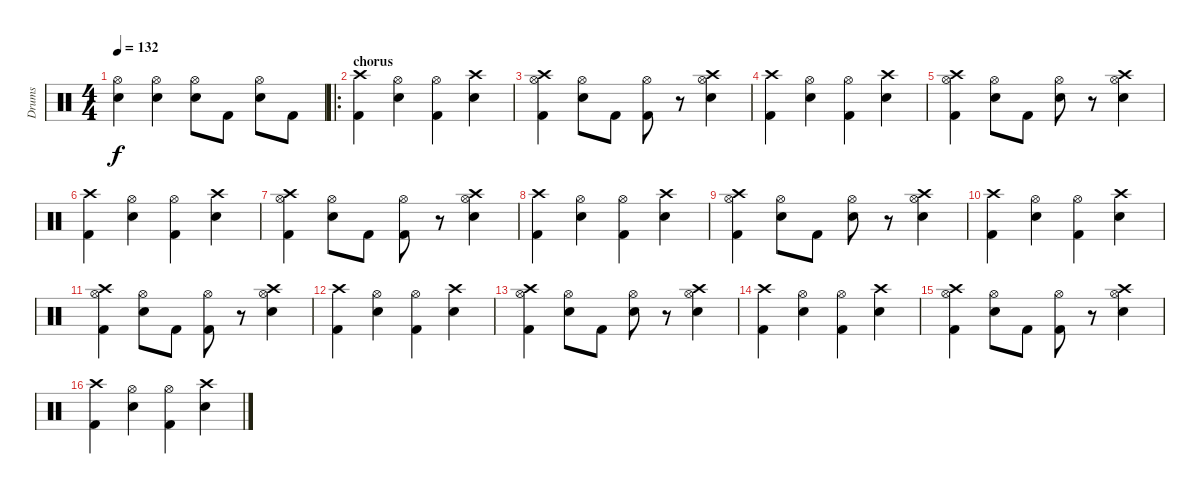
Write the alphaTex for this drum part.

\track ("Drums" "Drums") {instrument percussion}
\staff {score}
\articulation defaults
\ts (4 4)
\tempo 132
\clef neutral
\ks c
("Hi-Hat (open)" "Snare (hit) 2").4{dy f} ("Hi-Hat (open)" "Snare (hit) 2").4 ("Hi-Hat (open)" "Snare (hit) 2").8 "Kick (hit) 2".8 ("Hi-Hat (open)" "Snare (hit) 2").8 "Kick (hit) 2".8 |
\ro
\section ("" "chorus")
("Crash high (hit)" "Kick (hit) 2").4 ("Hi-Hat (open)" "Snare (hit) 2").4 ("Hi-Hat (open)" "Kick (hit) 2").4 ("Crash high (hit)" "Snare (hit) 2").4 |
("Hi-Hat (open)" "Crash high (hit)" "Kick (hit) 2").4 ("Hi-Hat (open)" "Snare (hit) 2").8 "Kick (hit) 2".8 ("Hi-Hat (open)" "Kick (hit) 2").8 r.8 ("Crash high (hit)" "Hi-Hat (open)" "Snare (hit) 2").4 |
("Crash high (hit)" "Kick (hit) 2").4 ("Hi-Hat (open)" "Snare (hit) 2").4 ("Hi-Hat (open)" "Kick (hit) 2").4 ("Crash high (hit)" "Snare (hit) 2").4 |
("Hi-Hat (open)" "Crash high (hit)" "Kick (hit) 2").4 ("Hi-Hat (open)" "Snare (hit) 2").8 "Kick (hit) 2".8 ("Hi-Hat (open)" "Snare (hit) 2").8 r.8 ("Crash high (hit)" "Hi-Hat (open)" "Snare (hit) 2").4 |
("Crash high (hit)" "Kick (hit) 2").4 ("Hi-Hat (open)" "Snare (hit) 2").4 ("Hi-Hat (open)" "Kick (hit) 2").4 ("Crash high (hit)" "Snare (hit) 2").4 |
("Hi-Hat (open)" "Crash high (hit)" "Kick (hit) 2").4 ("Hi-Hat (open)" "Snare (hit) 2").8 "Kick (hit) 2".8 ("Hi-Hat (open)" "Kick (hit) 2").8 r.8 ("Crash high (hit)" "Hi-Hat (open)" "Snare (hit) 2").4 |
("Crash high (hit)" "Kick (hit) 2").4 ("Hi-Hat (open)" "Snare (hit) 2").4 ("Hi-Hat (open)" "Kick (hit) 2").4 ("Crash high (hit)" "Snare (hit) 2").4 |
("Hi-Hat (open)" "Crash high (hit)" "Kick (hit) 2").4 ("Hi-Hat (open)" "Snare (hit) 2").8 "Kick (hit) 2".8 ("Hi-Hat (open)" "Snare (hit) 2").8 r.8 ("Crash high (hit)" "Hi-Hat (open)" "Snare (hit) 2").4 |
("Crash high (hit)" "Kick (hit) 2").4 ("Hi-Hat (open)" "Snare (hit) 2").4 ("Hi-Hat (open)" "Kick (hit) 2").4 ("Crash high (hit)" "Snare (hit) 2").4 |
("Hi-Hat (open)" "Crash high (hit)" "Kick (hit) 2").4 ("Hi-Hat (open)" "Snare (hit) 2").8 "Kick (hit) 2".8 ("Hi-Hat (open)" "Kick (hit) 2").8 r.8 ("Crash high (hit)" "Hi-Hat (open)" "Snare (hit) 2").4 |
("Crash high (hit)" "Kick (hit) 2").4 ("Hi-Hat (open)" "Snare (hit) 2").4 ("Hi-Hat (open)" "Kick (hit) 2").4 ("Crash high (hit)" "Snare (hit) 2").4 |
("Hi-Hat (open)" "Crash high (hit)" "Kick (hit) 2").4 ("Hi-Hat (open)" "Snare (hit) 2").8 "Kick (hit) 2".8 ("Hi-Hat (open)" "Snare (hit) 2").8 r.8 ("Crash high (hit)" "Hi-Hat (open)" "Snare (hit) 2").4 |
("Crash high (hit)" "Kick (hit) 2").4 ("Hi-Hat (open)" "Snare (hit) 2").4 ("Hi-Hat (open)" "Kick (hit) 2").4 ("Crash high (hit)" "Snare (hit) 2").4 |
("Hi-Hat (open)" "Crash high (hit)" "Kick (hit) 2").4 ("Hi-Hat (open)" "Snare (hit) 2").8 "Kick (hit) 2".8 ("Hi-Hat (open)" "Kick (hit) 2").8 r.8 ("Crash high (hit)" "Hi-Hat (open)" "Snare (hit) 2").4 |
("Crash high (hit)" "Kick (hit) 2").4 ("Hi-Hat (open)" "Snare (hit) 2").4 ("Hi-Hat (open)" "Kick (hit) 2").4 ("Crash high (hit)" "Snare (hit) 2").4
